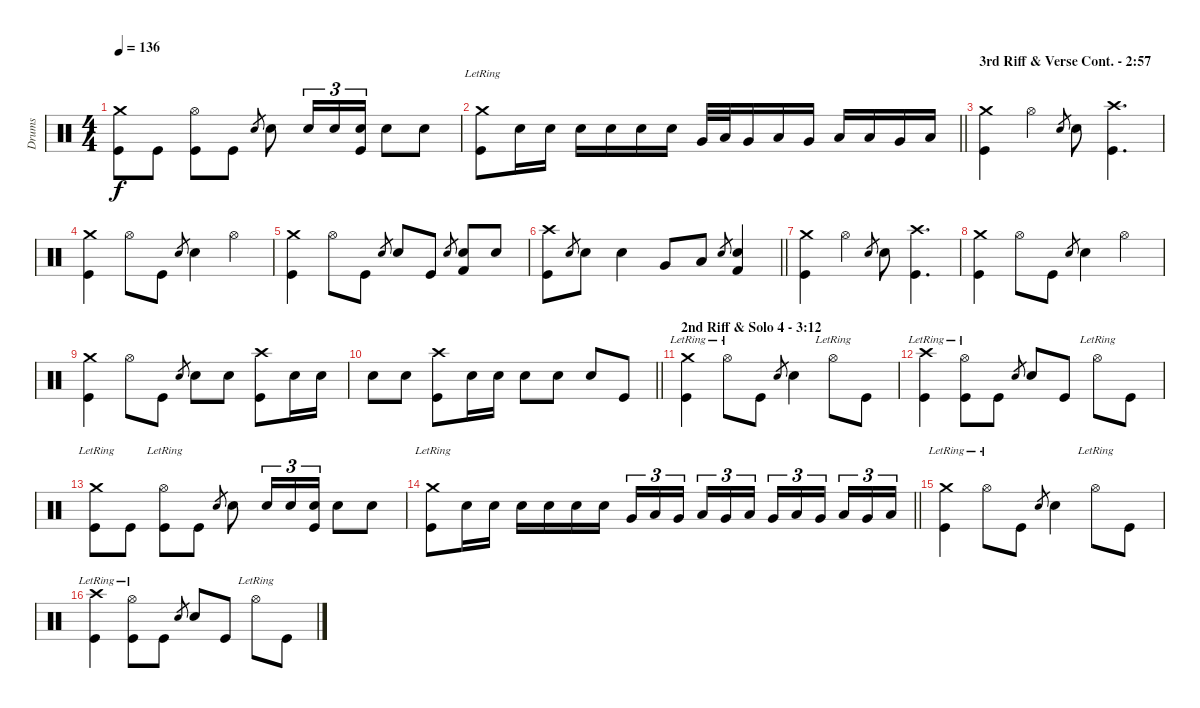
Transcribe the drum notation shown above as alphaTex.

\track ("Drums" "Drums") {instrument percussion}
\staff {score}
\articulation defaults
\ts (4 4)
\tempo 136
\clef neutral
\ks c
("Crash medium (hit)" "Kick (hit)").8{dy f} "Kick (hit)".8 ("Hi-Hat (open)" "Kick (hit)").8 "Kick (hit)".8 "Snare (hit) 2".8{gr} "Snare (hit) 2".8 "Snare (hit) 2".16{tu (3 2)} "Snare (hit) 2".16{tu (3 2)} ("Snare (hit) 2" "Kick (hit)").16{tu (3 2)} "Snare (hit) 2".8 "Snare (hit) 2".8 |
\barLineRight lightlight
("Crash medium (hit)"{lr} "Kick (hit)").8 "Snare (hit) 2".16 "Snare (hit) 2".16 "Snare (hit) 2".16 "Snare (hit) 2".16 "Snare (hit) 2".16 "Snare (hit) 2".16 "Very Low Tom (hit)".32 "Low Tom (hit)".32 "Very Low Tom (hit)".16 "Low Tom (hit)".16 "Very Low Tom (hit)".16 "Low Tom (hit)".16 "Low Floor Tom (hit)".16 "Very Low Tom (hit)".16 "Low Floor Tom (hit)".16 |
\section ("" "3rd Riff & Verse Cont. - 2:57")
("Crash medium (hit)" "Kick (hit)").4 "Hi-Hat (open)".4 "Snare (hit) 2".8{gr} "Snare (hit) 2".8 ("Crash high (hit)" "Kick (hit)").4{d} |
("Crash medium (hit)" "Kick (hit)").4 "Hi-Hat (open)".8 "Kick (hit)".8 "Snare (hit) 2".8{gr} "Snare (hit) 2".4 "Hi-Hat (open)".4 |
("Crash medium (hit)" "Kick (hit)").4 "Hi-Hat (open)".8 "Kick (hit)".8 "Snare (hit) 2".8{gr} "Snare (hit) 2".8 "Kick (hit)".8 "Snare (hit) 2".8{gr} ("Snare (hit) 2" "Kick (hit) 2").8 "Snare (hit) 2".8 |
\barLineRight lightlight
("Crash high (hit)" "Kick (hit)").8 "Snare (hit) 2".8{gr} "Snare (hit) 2".8 "Snare (hit) 2".4 "Very Low Tom (hit)".8 "Low Floor Tom (hit)".8 "Snare (hit) 2".8{gr} ("Snare (hit) 2" "Kick (hit) 2").4 |
("Crash medium (hit)" "Kick (hit)").4 "Hi-Hat (open)".4 "Snare (hit) 2".8{gr} "Snare (hit) 2".8 ("Crash high (hit)" "Kick (hit)").4{d} |
("Crash medium (hit)" "Kick (hit)").4 "Hi-Hat (open)".8 "Kick (hit)".8 "Snare (hit) 2".8{gr} "Snare (hit) 2".4 "Hi-Hat (open)".4 |
("Crash medium (hit)" "Kick (hit)").4 "Hi-Hat (open)".8 "Kick (hit)".8 "Snare (hit) 2".8{gr} "Snare (hit) 2".8 "Snare (hit) 2".8 ("Crash high (hit)" "Kick (hit)").8 "Snare (hit) 2".16 "Snare (hit) 2".16 |
\barLineRight lightlight "Snare (hit) 2".8 "Snare (hit) 2".8
("Crash high (hit)" "Kick (hit)").8 "Snare (hit) 2".16 "Snare (hit) 2".16 "Snare (hit) 2".8 "Snare (hit) 2".8 "Snare (hit) 2".8 "Kick (hit)".8 |
\section ("" "2nd Riff & Solo 4 - 3:12")
("Crash medium (hit)"{lr} "Kick (hit)").4 "Hi-Hat (open)"{lr}.8 "Kick (hit)".8 "Snare (hit) 2".8{gr} "Snare (hit) 2".4 "Hi-Hat (open)"{lr}.8 "Kick (hit)".8 |
("Crash high (hit)"{lr} "Kick (hit)").4 ("Hi-Hat (open)"{lr} "Kick (hit)").8 "Kick (hit)".8 "Snare (hit) 2".8{gr} "Snare (hit) 2".8 "Kick (hit)".8 "Hi-Hat (open)"{lr}.8 "Kick (hit)".8 |
("Crash medium (hit)"{lr} "Kick (hit)").8 "Kick (hit)".8 ("Hi-Hat (open)"{lr} "Kick (hit)").8 "Kick (hit)".8 "Snare (hit) 2".8{gr} "Snare (hit) 2".8 "Snare (hit) 2".16{tu (3 2)} "Snare (hit) 2".16{tu (3 2)} ("Snare (hit) 2" "Kick (hit)").16{tu (3 2)} "Snare (hit) 2".8 "Snare (hit) 2".8 |
\barLineRight lightlight
("Crash medium (hit)"{lr} "Kick (hit)").8 "Snare (hit) 2".16 "Snare (hit) 2".16 "Snare (hit) 2".16 "Snare (hit) 2".16 "Snare (hit) 2".16 "Snare (hit) 2".16 "Very Low Tom (hit)".16{tu (3 2)} "Low Tom (hit)".16{tu (3 2)} "Very Low Tom (hit)".16{tu (3 2) beam splitsecondary} "Low Tom (hit)".16{tu (3 2)} "Very Low Tom (hit)".16{tu (3 2)} "Low Tom (hit)".16{tu (3 2)} "Very Low Tom (hit)".16{tu (3 2)} "Low Floor Tom (hit)".16{tu (3 2)} "Very Low Tom (hit)".16{tu (3 2) beam splitsecondary} "Low Floor Tom (hit)".16{tu (3 2)} "Very Low Tom (hit)".16{tu (3 2)} "Low Floor Tom (hit)".16{tu (3 2)} |
("Crash medium (hit)"{lr} "Kick (hit)").4 "Hi-Hat (open)"{lr}.8 "Kick (hit)".8 "Snare (hit) 2".8{gr} "Snare (hit) 2".4 "Hi-Hat (open)"{lr}.8 "Kick (hit)".8 |
("Crash high (hit)"{lr} "Kick (hit)").4 ("Hi-Hat (open)"{lr} "Kick (hit)").8 "Kick (hit)".8 "Snare (hit) 2".8{gr} "Snare (hit) 2".8 "Kick (hit)".8 "Hi-Hat (open)"{lr}.8 "Kick (hit)".8
